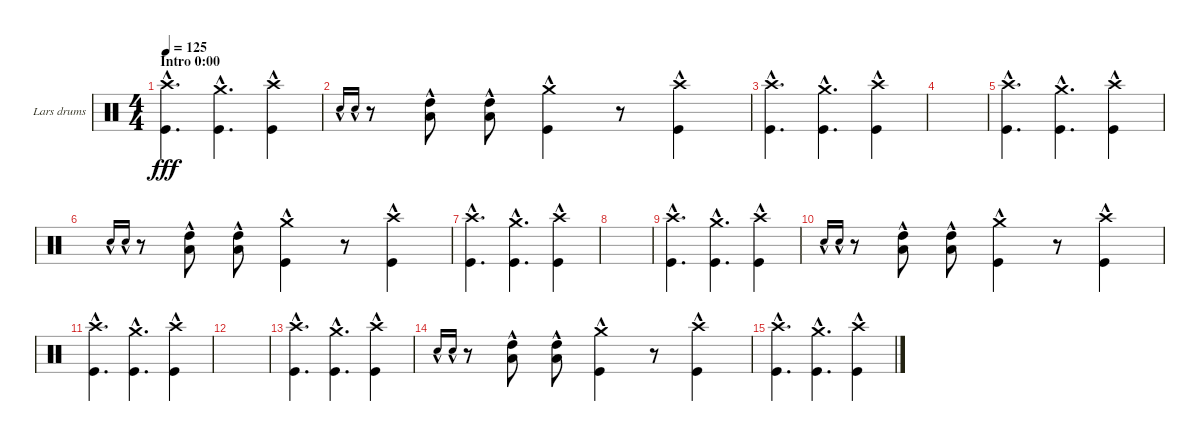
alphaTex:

\defaultSystemsLayout 4
\bracketExtendMode groupsimilarinstruments
\firstSystemTrackNameOrientation horizontal
\otherSystemsTrackNameOrientation horizontal
\track ("Lars drums" "Lars drums") {instrument percussion}
\staff {score}
\articulation defaults
\ts (4 4)
\section ("" "Intro 0:00")
\tempo 125
\clef neutral
\ks c
("Crash high (hit)"{hac} "Kick (hit)"{hac}).4{d dy fff} ("Crash medium (hit)"{hac} "Kick (hit)"{hac}).4{d} ("Crash high (hit)"{hac} "Kick (hit)"{hac}).4 |
"Snare (hit) 2"{hac}.16{gr onbeat} "Snare (hit) 2"{hac}.16{gr onbeat} r.8 ("Low Tom (hit)"{hac} "High Tom (hit)"{hac}).8 ("Low Tom (hit)"{hac} "High Tom (hit)"{hac}).8 ("Crash medium (hit)"{hac} "Kick (hit)"{hac}).4 r.8 ("Crash high (hit)"{hac} "Kick (hit)"{hac}).4 |
("Crash high (hit)"{hac} "Kick (hit)"{hac}).4{d} ("Crash medium (hit)"{hac} "Kick (hit)"{hac}).4{d} ("Crash high (hit)"{hac} "Kick (hit)"{hac}).4 |
|
("Crash high (hit)"{hac} "Kick (hit)"{hac}).4{d} ("Crash medium (hit)"{hac} "Kick (hit)"{hac}).4{d} ("Crash high (hit)"{hac} "Kick (hit)"{hac}).4 |
"Snare (hit) 2"{hac}.16{gr onbeat} "Snare (hit) 2"{hac}.16{gr onbeat} r.8 ("Low Tom (hit)"{hac} "High Tom (hit)"{hac}).8 ("Low Tom (hit)"{hac} "High Tom (hit)"{hac}).8 ("Crash medium (hit)"{hac} "Kick (hit)"{hac}).4 r.8 ("Crash high (hit)"{hac} "Kick (hit)"{hac}).4 |
("Crash high (hit)"{hac} "Kick (hit)"{hac}).4{d} ("Crash medium (hit)"{hac} "Kick (hit)"{hac}).4{d} ("Crash high (hit)"{hac} "Kick (hit)"{hac}).4 |
|
("Crash high (hit)"{hac} "Kick (hit)"{hac}).4{d} ("Crash medium (hit)"{hac} "Kick (hit)"{hac}).4{d} ("Crash high (hit)"{hac} "Kick (hit)"{hac}).4 |
"Snare (hit) 2"{hac}.16{gr onbeat} "Snare (hit) 2"{hac}.16{gr onbeat} r.8 ("Low Tom (hit)"{hac} "High Tom (hit)"{hac}).8 ("Low Tom (hit)"{hac} "High Tom (hit)"{hac}).8 ("Crash medium (hit)"{hac} "Kick (hit)"{hac}).4 r.8 ("Crash high (hit)"{hac} "Kick (hit)"{hac}).4 |
("Crash high (hit)"{hac} "Kick (hit)"{hac}).4{d} ("Crash medium (hit)"{hac} "Kick (hit)"{hac}).4{d} ("Crash high (hit)"{hac} "Kick (hit)"{hac}).4 |
|
("Crash high (hit)"{hac} "Kick (hit)"{hac}).4{d} ("Crash medium (hit)"{hac} "Kick (hit)"{hac}).4{d} ("Crash high (hit)"{hac} "Kick (hit)"{hac}).4 |
"Snare (hit) 2"{hac}.16{gr onbeat} "Snare (hit) 2"{hac}.16{gr onbeat} r.8 ("Low Tom (hit)"{hac} "High Tom (hit)"{hac}).8 ("Low Tom (hit)"{hac} "High Tom (hit)"{hac}).8 ("Crash medium (hit)"{hac} "Kick (hit)"{hac}).4 r.8 ("Crash high (hit)"{hac} "Kick (hit)"{hac}).4 |
("Crash high (hit)"{hac} "Kick (hit)"{hac}).4{d} ("Crash medium (hit)"{hac} "Kick (hit)"{hac}).4{d} ("Crash high (hit)"{hac} "Kick (hit)"{hac}).4
